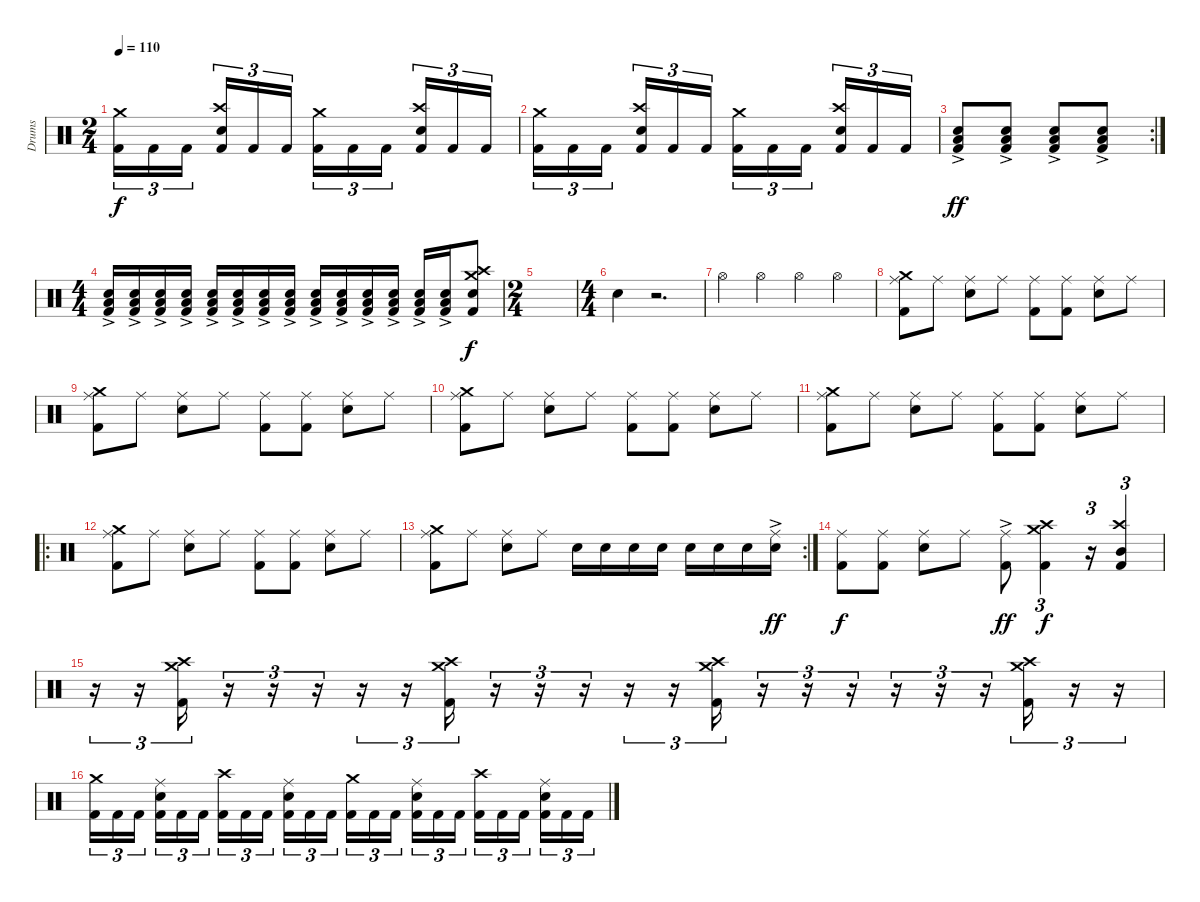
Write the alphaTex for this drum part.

\track ("Drums" "Drums") {instrument percussion}
\staff {score}
\articulation defaults
\ts (2 4)
\tempo 110
\clef neutral
\ks c
("Kick (hit) 2" "Crash medium (hit)").16{tu (3 2) dy f} "Kick (hit) 2".16{tu (3 2)} "Kick (hit) 2".16{tu (3 2) beam splitsecondary} ("Kick (hit) 2" "Crash high (hit)" "Snare (hit) 2").16{tu (3 2)} "Kick (hit) 2".16{tu (3 2)} "Kick (hit) 2".16{tu (3 2)} ("Kick (hit) 2" "Crash medium (hit)").16{tu (3 2)} "Kick (hit) 2".16{tu (3 2)} "Kick (hit) 2".16{tu (3 2) beam splitsecondary} ("Kick (hit) 2" "Crash high (hit)" "Snare (hit) 2").16{tu (3 2)} "Kick (hit) 2".16{tu (3 2)} "Kick (hit) 2".16{tu (3 2)} |
("Kick (hit) 2" "Crash medium (hit)").16{tu (3 2)} "Kick (hit) 2".16{tu (3 2)} "Kick (hit) 2".16{tu (3 2) beam splitsecondary} ("Kick (hit) 2" "Crash high (hit)" "Snare (hit) 2").16{tu (3 2)} "Kick (hit) 2".16{tu (3 2)} "Kick (hit) 2".16{tu (3 2)} ("Kick (hit) 2" "Crash medium (hit)").16{tu (3 2)} "Kick (hit) 2".16{tu (3 2)} "Kick (hit) 2".16{tu (3 2) beam splitsecondary} ("Kick (hit) 2" "Crash high (hit)" "Snare (hit) 2").16{tu (3 2)} "Kick (hit) 2".16{tu (3 2)} "Kick (hit) 2".16{tu (3 2)} |
\rc 2
("Kick (hit) 2"{ac} "Snare (hit) 2" "Low Floor Tom (hit)"{ac}).8{dy ff} ("Kick (hit) 2"{ac} "Snare (hit) 2" "Low Floor Tom (hit)"{ac}).8 ("Kick (hit) 2"{ac} "Snare (hit) 2" "Low Floor Tom (hit)"{ac}).8 ("Kick (hit) 2"{ac} "Snare (hit) 2" "Low Floor Tom (hit)"{ac}).8 |
\ts (4 4)
("Snare (hit) 2"{ac} "Kick (hit) 2" "Low Floor Tom (hit)"{ac}).16 ("Snare (hit) 2"{ac} "Kick (hit) 2" "Low Floor Tom (hit)"{ac}).16 ("Snare (hit) 2"{ac} "Kick (hit) 2" "Low Floor Tom (hit)"{ac}).16 ("Snare (hit) 2"{ac} "Kick (hit) 2" "Low Floor Tom (hit)"{ac}).16 ("Snare (hit) 2"{ac} "Kick (hit) 2" "Low Floor Tom (hit)"{ac}).16 ("Snare (hit) 2"{ac} "Kick (hit) 2" "Low Floor Tom (hit)"{ac}).16 ("Snare (hit) 2"{ac} "Kick (hit) 2" "Low Floor Tom (hit)"{ac}).16 ("Snare (hit) 2"{ac} "Kick (hit) 2" "Low Floor Tom (hit)"{ac}).16 ("Snare (hit) 2"{ac} "Kick (hit) 2" "Low Floor Tom (hit)"{ac}).16 ("Snare (hit) 2"{ac} "Kick (hit) 2" "Low Floor Tom (hit)"{ac}).16 ("Snare (hit) 2"{ac} "Kick (hit) 2" "Low Floor Tom (hit)"{ac}).16 ("Snare (hit) 2"{ac} "Kick (hit) 2" "Low Floor Tom (hit)"{ac}).16 ("Snare (hit) 2"{ac} "Kick (hit) 2" "Low Floor Tom (hit)"{ac}).16 ("Snare (hit) 2"{ac} "Kick (hit) 2" "Low Floor Tom (hit)"{ac}).16 ("Kick (hit) 2" "Crash medium (hit)" "Crash high (hit)" "Snare (hit) 2").8{dy f} |
\ts (2 4)
|
\ts (4 4)
"Snare (hit) 2".4 r.2{d} |
"Hi-Hat (open)".4 "Hi-Hat (open)".4 "Hi-Hat (open)".4 "Hi-Hat (open)".4 |
("Ride (middle)" "Crash medium (hit)" "Kick (hit) 2").8 "Ride (middle)".8 ("Ride (middle)" "Snare (hit) 2").8 "Ride (middle)".8 ("Ride (middle)" "Kick (hit) 2").8 ("Ride (middle)" "Kick (hit) 2").8 ("Ride (middle)" "Snare (hit) 2").8 "Ride (middle)".8 |
("Ride (middle)" "Crash medium (hit)" "Kick (hit) 2").8 "Ride (middle)".8 ("Ride (middle)" "Snare (hit) 2").8 "Ride (middle)".8 ("Ride (middle)" "Kick (hit) 2").8 ("Ride (middle)" "Kick (hit) 2").8 ("Ride (middle)" "Snare (hit) 2").8 "Ride (middle)".8 |
("Ride (middle)" "Crash medium (hit)" "Kick (hit) 2").8 "Ride (middle)".8 ("Ride (middle)" "Snare (hit) 2").8 "Ride (middle)".8 ("Ride (middle)" "Kick (hit) 2").8 ("Ride (middle)" "Kick (hit) 2").8 ("Ride (middle)" "Snare (hit) 2").8 "Ride (middle)".8 |
("Ride (middle)" "Crash medium (hit)" "Kick (hit) 2").8 "Ride (middle)".8 ("Ride (middle)" "Snare (hit) 2").8 "Ride (middle)".8 ("Ride (middle)" "Kick (hit) 2").8 ("Ride (middle)" "Kick (hit) 2").8 ("Ride (middle)" "Snare (hit) 2").8 "Ride (middle)".8 |
\ro
("Ride (middle)" "Crash medium (hit)" "Kick (hit) 2").8 "Ride (middle)".8 ("Ride (middle)" "Snare (hit) 2").8 "Ride (middle)".8 ("Ride (middle)" "Kick (hit) 2").8 ("Ride (middle)" "Kick (hit) 2").8 ("Ride (middle)" "Snare (hit) 2").8 "Ride (middle)".8 |
\rc 2
("Ride (middle)" "Crash medium (hit)" "Kick (hit) 2").8 "Ride (middle)".8 ("Ride (middle)" "Snare (hit) 2").8 "Ride (middle)".8 "Snare (hit) 2".16 "Snare (hit) 2".16 "Snare (hit) 2".16 "Snare (hit) 2".16 "Snare (hit) 2".16 "Snare (hit) 2".16 "Snare (hit) 2".16 ("Snare (hit) 2"{ac} "Ride (middle)"{ac}).16{dy ff} |
("Ride (middle)" "Kick (hit) 2").8{dy f} ("Ride (middle)" "Kick (hit) 2").8 ("Ride (middle)" "Snare (hit) 2").8 "Ride (middle)".8 ("Ride (middle)"{ac} "Kick (hit) 2"{ac}).8{dy ff} ("Crash medium (hit)" "Crash high (hit)" "Kick (hit) 2").4{tu (3 2) dy f} r.16{tu (3 2)} ("Mid Tom (hit)" "Crash high (hit)" "Kick (hit) 2").4{tu (3 2)} |
r.16{tu (3 2)} r.16{tu (3 2)} ("Crash medium (hit)" "Crash high (hit)" "Kick (hit) 2").16{tu (3 2)} r.16{tu (3 2)} r.16{tu (3 2)} r.16{tu (3 2)} r.16{tu (3 2)} r.16{tu (3 2)} ("Crash medium (hit)" "Crash high (hit)" "Kick (hit) 2").16{tu (3 2)} r.16{tu (3 2)} r.16{tu (3 2)} r.16{tu (3 2)} r.16{tu (3 2)} r.16{tu (3 2)} ("Crash medium (hit)" "Crash high (hit)" "Kick (hit) 2").16{tu (3 2)} r.16{tu (3 2)} r.16{tu (3 2)} r.16{tu (3 2)} r.16{tu (3 2)} r.16{tu (3 2)} r.16{tu (3 2)} ("Crash medium (hit)" "Crash high (hit)" "Kick (hit) 2").16{tu (3 2)} r.16{tu (3 2)} r.16{tu (3 2)} |
("Kick (hit) 2" "Crash medium (hit)").16{tu (3 2)} "Kick (hit) 2".16{tu (3 2)} "Kick (hit) 2".16{tu (3 2) beam splitsecondary} ("Kick (hit) 2" "Snare (hit) 2" "Ride (middle)").16{tu (3 2)} "Kick (hit) 2".16{tu (3 2)} "Kick (hit) 2".16{tu (3 2)} ("Kick (hit) 2" "Crash high (hit)").16{tu (3 2)} "Kick (hit) 2".16{tu (3 2)} "Kick (hit) 2".16{tu (3 2) beam splitsecondary} ("Kick (hit) 2" "Snare (hit) 2" "Ride (middle)").16{tu (3 2)} "Kick (hit) 2".16{tu (3 2)} "Kick (hit) 2".16{tu (3 2)} ("Kick (hit) 2" "Crash medium (hit)").16{tu (3 2)} "Kick (hit) 2".16{tu (3 2)} "Kick (hit) 2".16{tu (3 2) beam splitsecondary} ("Kick (hit) 2" "Snare (hit) 2" "Ride (middle)").16{tu (3 2)} "Kick (hit) 2".16{tu (3 2)} "Kick (hit) 2".16{tu (3 2)} ("Kick (hit) 2" "Crash high (hit)").16{tu (3 2)} "Kick (hit) 2".16{tu (3 2)} "Kick (hit) 2".16{tu (3 2) beam splitsecondary} ("Kick (hit) 2" "Snare (hit) 2" "Ride (middle)").16{tu (3 2)} "Kick (hit) 2".16{tu (3 2)} "Kick (hit) 2".16{tu (3 2)}
